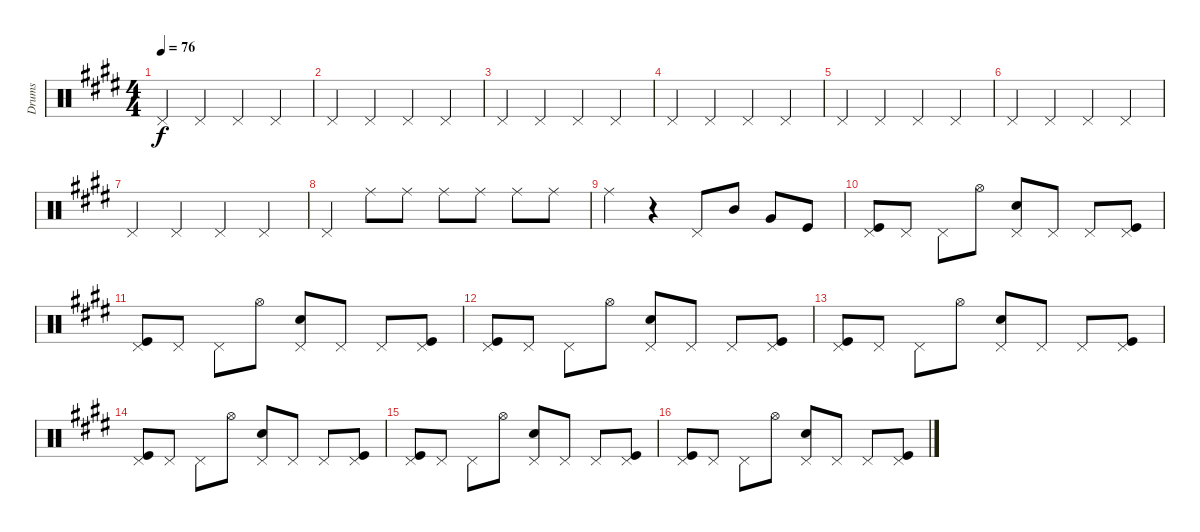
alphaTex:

\track ("Drums" "Drums") {instrument percussion}
\staff {score}
\articulation defaults
\ts (4 4)
\tempo 76
\clef neutral
\ks c#minor "Pedal Hi-Hat (hit)".4{dy f} "Pedal Hi-Hat (hit)".4 "Pedal Hi-Hat (hit)".4 "Pedal Hi-Hat (hit)".4
|
"Pedal Hi-Hat (hit)".4 "Pedal Hi-Hat (hit)".4 "Pedal Hi-Hat (hit)".4 "Pedal Hi-Hat (hit)".4 |
"Pedal Hi-Hat (hit)".4 "Pedal Hi-Hat (hit)".4 "Pedal Hi-Hat (hit)".4 "Pedal Hi-Hat (hit)".4 |
"Pedal Hi-Hat (hit)".4 "Pedal Hi-Hat (hit)".4 "Pedal Hi-Hat (hit)".4 "Pedal Hi-Hat (hit)".4 |
"Pedal Hi-Hat (hit)".4 "Pedal Hi-Hat (hit)".4 "Pedal Hi-Hat (hit)".4 "Pedal Hi-Hat (hit)".4 |
"Pedal Hi-Hat (hit)".4 "Pedal Hi-Hat (hit)".4 "Pedal Hi-Hat (hit)".4 "Pedal Hi-Hat (hit)".4 |
"Pedal Hi-Hat (hit)".4 "Pedal Hi-Hat (hit)".4 "Pedal Hi-Hat (hit)".4 "Pedal Hi-Hat (hit)".4 |
"Pedal Hi-Hat (hit)".4 "Ride (middle)".8 "Ride (middle)".8 "Ride (middle)".8 "Ride (middle)".8 "Ride (middle)".8 "Ride (middle)".8 |
"Ride (middle)".4 r.4 "Pedal Hi-Hat (hit)".8 "Mid Tom (hit)".8 "Very Low Tom (hit)".8 "Kick (hit)".8 |
("Pedal Hi-Hat (hit)" "Kick (hit)").8 "Pedal Hi-Hat (hit)".8 "Pedal Hi-Hat (hit)".8 "Hi-Hat (open)".8 ("Snare (hit) 2" "Pedal Hi-Hat (hit)").8 "Pedal Hi-Hat (hit)".8 "Pedal Hi-Hat (hit)".8 ("Kick (hit)" "Pedal Hi-Hat (hit)").8 |
("Pedal Hi-Hat (hit)" "Kick (hit)").8 "Pedal Hi-Hat (hit)".8 "Pedal Hi-Hat (hit)".8 "Hi-Hat (open)".8 ("Snare (hit) 2" "Pedal Hi-Hat (hit)").8 "Pedal Hi-Hat (hit)".8 "Pedal Hi-Hat (hit)".8 ("Kick (hit)" "Pedal Hi-Hat (hit)").8 |
("Pedal Hi-Hat (hit)" "Kick (hit)").8 "Pedal Hi-Hat (hit)".8 "Pedal Hi-Hat (hit)".8 "Hi-Hat (open)".8 ("Snare (hit) 2" "Pedal Hi-Hat (hit)").8 "Pedal Hi-Hat (hit)".8 "Pedal Hi-Hat (hit)".8 ("Kick (hit)" "Pedal Hi-Hat (hit)").8 |
("Pedal Hi-Hat (hit)" "Kick (hit)").8 "Pedal Hi-Hat (hit)".8 "Pedal Hi-Hat (hit)".8 "Hi-Hat (open)".8 ("Snare (hit) 2" "Pedal Hi-Hat (hit)").8 "Pedal Hi-Hat (hit)".8 "Pedal Hi-Hat (hit)".8 ("Kick (hit)" "Pedal Hi-Hat (hit)").8 |
("Pedal Hi-Hat (hit)" "Kick (hit)").8 "Pedal Hi-Hat (hit)".8 "Pedal Hi-Hat (hit)".8 "Hi-Hat (open)".8 ("Snare (hit) 2" "Pedal Hi-Hat (hit)").8 "Pedal Hi-Hat (hit)".8 "Pedal Hi-Hat (hit)".8 ("Kick (hit)" "Pedal Hi-Hat (hit)").8 |
("Pedal Hi-Hat (hit)" "Kick (hit)").8 "Pedal Hi-Hat (hit)".8 "Pedal Hi-Hat (hit)".8 "Hi-Hat (open)".8 ("Snare (hit) 2" "Pedal Hi-Hat (hit)").8 "Pedal Hi-Hat (hit)".8 "Pedal Hi-Hat (hit)".8 ("Kick (hit)" "Pedal Hi-Hat (hit)").8 |
("Pedal Hi-Hat (hit)" "Kick (hit)").8 "Pedal Hi-Hat (hit)".8 "Pedal Hi-Hat (hit)".8 "Hi-Hat (open)".8 ("Snare (hit) 2" "Pedal Hi-Hat (hit)").8 "Pedal Hi-Hat (hit)".8 "Pedal Hi-Hat (hit)".8 ("Kick (hit)" "Pedal Hi-Hat (hit)").8
